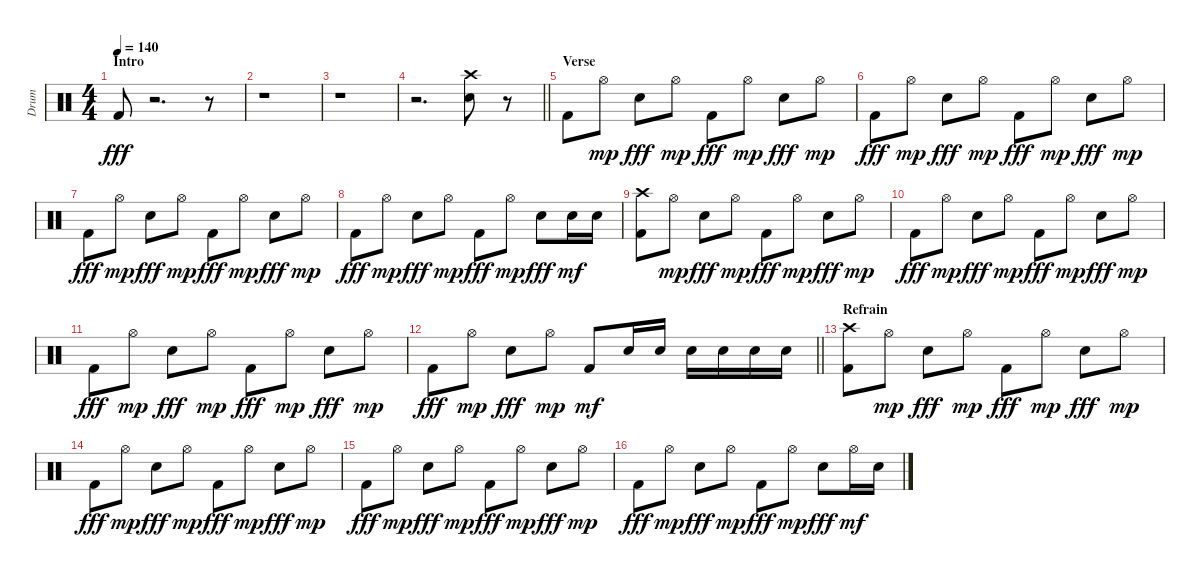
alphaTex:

\track ("Drum" "Drum") {instrument percussion}
\staff {score}
\articulation defaults
\ts (4 4)
\section ("" "Intro")
\tempo 140
\clef neutral
\ks c "Kick (hit) 2".8{dy fff}
r.2{d} r.8 |
r.1 |
r.1 |
\barLineRight lightlight
r.2{d} ("Electric Snare (hit)" "Crash high (hit)").8 r.8 |
\section ("" "Verse")
"Kick (hit) 2".8 "Hi-Hat (open)".8{dy mp} "Electric Snare (hit)".8{dy fff} "Hi-Hat (open)".8{dy mp} "Kick (hit) 2".8{dy fff} "Hi-Hat (open)".8{dy mp} "Electric Snare (hit)".8{dy fff} "Hi-Hat (open)".8{dy mp} |
"Kick (hit) 2".8{dy fff} "Hi-Hat (open)".8{dy mp} "Electric Snare (hit)".8{dy fff} "Hi-Hat (open)".8{dy mp} "Kick (hit) 2".8{dy fff} "Hi-Hat (open)".8{dy mp} "Electric Snare (hit)".8{dy fff} "Hi-Hat (open)".8{dy mp} |
"Kick (hit) 2".8{dy fff} "Hi-Hat (open)".8{dy mp} "Electric Snare (hit)".8{dy fff} "Hi-Hat (open)".8{dy mp} "Kick (hit) 2".8{dy fff} "Hi-Hat (open)".8{dy mp} "Electric Snare (hit)".8{dy fff} "Hi-Hat (open)".8{dy mp} |
"Kick (hit) 2".8{dy fff} "Hi-Hat (open)".8{dy mp} "Electric Snare (hit)".8{dy fff} "Hi-Hat (open)".8{dy mp} "Kick (hit) 2".8{dy fff} "Hi-Hat (open)".8{dy mp} "Electric Snare (hit)".8{dy fff} "Electric Snare (hit)".16{dy mf} "Electric Snare (hit)".16 |
("Kick (hit) 2" "Crash high (hit)").8 "Hi-Hat (open)".8{dy mp} "Electric Snare (hit)".8{dy fff} "Hi-Hat (open)".8{dy mp} "Kick (hit) 2".8{dy fff} "Hi-Hat (open)".8{dy mp} "Electric Snare (hit)".8{dy fff} "Hi-Hat (open)".8{dy mp} |
"Kick (hit) 2".8{dy fff} "Hi-Hat (open)".8{dy mp} "Electric Snare (hit)".8{dy fff} "Hi-Hat (open)".8{dy mp} "Kick (hit) 2".8{dy fff} "Hi-Hat (open)".8{dy mp} "Electric Snare (hit)".8{dy fff} "Hi-Hat (open)".8{dy mp} |
"Kick (hit) 2".8{dy fff} "Hi-Hat (open)".8{dy mp} "Electric Snare (hit)".8{dy fff} "Hi-Hat (open)".8{dy mp} "Kick (hit) 2".8{dy fff} "Hi-Hat (open)".8{dy mp} "Electric Snare (hit)".8{dy fff} "Hi-Hat (open)".8{dy mp} |
\barLineRight lightlight "Kick (hit) 2".8{dy fff} "Hi-Hat (open)".8{dy mp} "Electric Snare (hit)".8{dy fff} "Hi-Hat (open)".8{dy mp} "Kick (hit) 2".8{dy mf} "Electric Snare (hit)".16 "Electric Snare (hit)".16 "Electric Snare (hit)".16 "Electric Snare (hit)".16 "Electric Snare (hit)".16 "Electric Snare (hit)".16
|
\section ("" "Refrain")
("Kick (hit) 2" "Crash high (hit)").8 "Hi-Hat (open)".8{dy mp} "Electric Snare (hit)".8{dy fff} "Hi-Hat (open)".8{dy mp} "Kick (hit) 2".8{dy fff} "Hi-Hat (open)".8{dy mp} "Electric Snare (hit)".8{dy fff} "Hi-Hat (open)".8{dy mp} |
"Kick (hit) 2".8{dy fff} "Hi-Hat (open)".8{dy mp} "Electric Snare (hit)".8{dy fff} "Hi-Hat (open)".8{dy mp} "Kick (hit) 2".8{dy fff} "Hi-Hat (open)".8{dy mp} "Electric Snare (hit)".8{dy fff} "Hi-Hat (open)".8{dy mp} |
"Kick (hit) 2".8{dy fff} "Hi-Hat (open)".8{dy mp} "Electric Snare (hit)".8{dy fff} "Hi-Hat (open)".8{dy mp} "Kick (hit) 2".8{dy fff} "Hi-Hat (open)".8{dy mp} "Electric Snare (hit)".8{dy fff} "Hi-Hat (open)".8{dy mp} |
"Kick (hit) 2".8{dy fff} "Hi-Hat (open)".8{dy mp} "Electric Snare (hit)".8{dy fff} "Hi-Hat (open)".8{dy mp} "Kick (hit) 2".8{dy fff} "Hi-Hat (open)".8{dy mp} "Electric Snare (hit)".8{dy fff} "Hi-Hat (open)".16{dy mf} "Electric Snare (hit)".16
